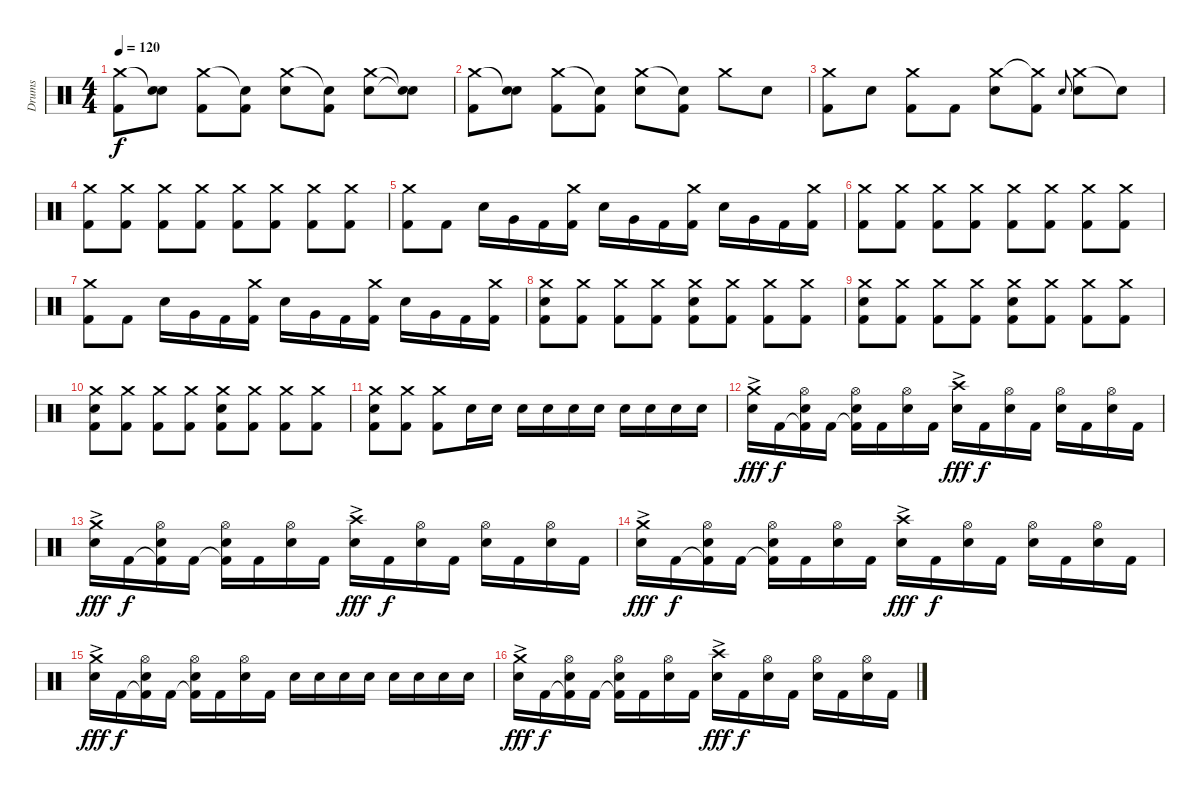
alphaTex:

\track ("Drums" "Drums") {instrument percussion}
\staff {score}
\articulation defaults
\ts (4 4)
\tempo 120
\clef neutral
\ks c
("Crash medium (hit)" "Kick (hit) 2").8{dy f} ("Snare (hit)"{t} "Electric Snare (hit)").8 ("Crash medium (hit)" "Kick (hit) 2").8 ("Snare (hit)"{t} "Kick (hit) 2").8 ("Crash medium (hit)" "Electric Snare (hit)").8 ("Snare (hit)"{t} "Kick (hit) 2").8 ("Crash medium (hit)" "Electric Snare (hit)").8 ("Snare (hit)"{t} "Electric Snare (hit)"{t}).8 |
("Crash medium (hit)" "Kick (hit) 2").8 ("Snare (hit)"{t} "Electric Snare (hit)").8 ("Crash medium (hit)" "Kick (hit) 2").8 ("Snare (hit)"{t} "Kick (hit) 2").8 ("Crash medium (hit)" "Electric Snare (hit)").8 ("Snare (hit)"{t} "Kick (hit) 2").8 "Crash medium (hit)".8 "Electric Snare (hit)".8 |
("Crash medium (hit)" "Kick (hit) 2").8 "Electric Snare (hit)".8 ("Crash medium (hit)" "Kick (hit) 2").8 "Kick (hit) 2".8 ("Crash medium (hit)" "Electric Snare (hit)").8 ("Crash medium (hit)"{t} "Kick (hit) 2").8 "Electric Snare (hit)".8{gr onbeat} ("Crash medium (hit)" "Electric Snare (hit)").8 "Snare (hit)"{t}.8 |
("Crash medium (hit)" "Kick (hit) 2").8 ("Crash medium (hit)" "Kick (hit) 2").8 ("Crash medium (hit)" "Kick (hit) 2").8 ("Crash medium (hit)" "Kick (hit) 2").8 ("Crash medium (hit)" "Kick (hit) 2").8 ("Crash medium (hit)" "Kick (hit) 2").8 ("Crash medium (hit)" "Kick (hit) 2").8 ("Crash medium (hit)" "Kick (hit) 2").8 |
("Crash medium (hit)" "Kick (hit) 2").8 "Kick (hit) 2".8 "Electric Snare (hit)".16 "Very Low Tom (hit)".16 "Kick (hit) 2".16 ("Crash medium (hit)" "Kick (hit) 2").16 "Electric Snare (hit)".16 "Very Low Tom (hit)".16 "Kick (hit) 2".16 ("Crash medium (hit)" "Kick (hit) 2").16 "Electric Snare (hit)".16 "Very Low Tom (hit)".16 "Kick (hit) 2".16 ("Crash medium (hit)" "Kick (hit) 2").16 |
("Crash medium (hit)" "Kick (hit) 2").8 ("Crash medium (hit)" "Kick (hit) 2").8 ("Crash medium (hit)" "Kick (hit) 2").8 ("Crash medium (hit)" "Kick (hit) 2").8 ("Crash medium (hit)" "Kick (hit) 2").8 ("Crash medium (hit)" "Kick (hit) 2").8 ("Crash medium (hit)" "Kick (hit) 2").8 ("Crash medium (hit)" "Kick (hit) 2").8 |
("Crash medium (hit)" "Kick (hit) 2").8 "Kick (hit) 2".8 "Electric Snare (hit)".16 "Very Low Tom (hit)".16 "Kick (hit) 2".16 ("Crash medium (hit)" "Kick (hit) 2").16 "Electric Snare (hit)".16 "Very Low Tom (hit)".16 "Kick (hit) 2".16 ("Crash medium (hit)" "Kick (hit) 2").16 "Electric Snare (hit)".16 "Very Low Tom (hit)".16 "Kick (hit) 2".16 ("Crash medium (hit)" "Kick (hit) 2").16 |
("Crash medium (hit)" "Electric Snare (hit)" "Kick (hit) 2").8 ("Crash medium (hit)" "Kick (hit) 2").8 ("Crash medium (hit)" "Kick (hit) 2").8 ("Crash medium (hit)" "Kick (hit) 2").8 ("Crash medium (hit)" "Electric Snare (hit)" "Kick (hit) 2").8 ("Crash medium (hit)" "Kick (hit) 2").8 ("Crash medium (hit)" "Kick (hit) 2").8 ("Crash medium (hit)" "Kick (hit) 2").8 |
("Crash medium (hit)" "Electric Snare (hit)" "Kick (hit) 2").8 ("Crash medium (hit)" "Kick (hit) 2").8 ("Crash medium (hit)" "Kick (hit) 2").8 ("Crash medium (hit)" "Kick (hit) 2").8 ("Crash medium (hit)" "Electric Snare (hit)" "Kick (hit) 2").8 ("Crash medium (hit)" "Kick (hit) 2").8 ("Crash medium (hit)" "Kick (hit) 2").8 ("Crash medium (hit)" "Kick (hit) 2").8 |
("Crash medium (hit)" "Electric Snare (hit)" "Kick (hit) 2").8 ("Crash medium (hit)" "Kick (hit) 2").8 ("Crash medium (hit)" "Kick (hit) 2").8 ("Crash medium (hit)" "Kick (hit) 2").8 ("Crash medium (hit)" "Electric Snare (hit)" "Kick (hit) 2").8 ("Crash medium (hit)" "Kick (hit) 2").8 ("Crash medium (hit)" "Kick (hit) 2").8 ("Crash medium (hit)" "Kick (hit) 2").8 |
("Crash medium (hit)" "Electric Snare (hit)" "Kick (hit) 2").8 ("Crash medium (hit)" "Kick (hit) 2").8 ("Crash medium (hit)" "Kick (hit) 2").8 "Electric Snare (hit)".16 "Electric Snare (hit)".16 "Electric Snare (hit)".16 "Electric Snare (hit)".16 "Electric Snare (hit)".16 "Electric Snare (hit)".16 "Electric Snare (hit)".16 "Electric Snare (hit)".16 "Electric Snare (hit)".16 "Electric Snare (hit)".16 |
("Electric Snare (hit)"{ac} "Crash medium (hit)").16{dy fff} "Kick (hit) 2".16{dy f} ("Kick (hit) 2"{t} "Hi-Hat (open)" "Electric Snare (hit)").16 "Kick (hit) 2".16 ("Kick (hit) 2"{t} "Hi-Hat (open)" "Electric Snare (hit)").16 "Kick (hit) 2".16 ("Hi-Hat (open)" "Electric Snare (hit)").16 "Kick (hit) 2".16 ("Electric Snare (hit)"{ac} "Crash high (hit)").16{dy fff} "Kick (hit) 2".16{dy f} ("Hi-Hat (open)" "Electric Snare (hit)").16 "Kick (hit) 2".16 ("Hi-Hat (open)" "Electric Snare (hit)").16 "Kick (hit) 2".16 ("Hi-Hat (open)" "Electric Snare (hit)").16 "Kick (hit) 2".16 |
("Electric Snare (hit)"{ac} "Crash medium (hit)").16{dy fff} "Kick (hit) 2".16{dy f} ("Kick (hit) 2"{t} "Hi-Hat (open)" "Electric Snare (hit)").16 "Kick (hit) 2".16 ("Kick (hit) 2"{t} "Hi-Hat (open)" "Electric Snare (hit)").16 "Kick (hit) 2".16 ("Hi-Hat (open)" "Electric Snare (hit)").16 "Kick (hit) 2".16 ("Electric Snare (hit)"{ac} "Crash high (hit)").16{dy fff} "Kick (hit) 2".16{dy f} ("Hi-Hat (open)" "Electric Snare (hit)").16 "Kick (hit) 2".16 ("Hi-Hat (open)" "Electric Snare (hit)").16 "Kick (hit) 2".16 ("Hi-Hat (open)" "Electric Snare (hit)").16 "Kick (hit) 2".16 |
("Electric Snare (hit)"{ac} "Crash medium (hit)").16{dy fff} "Kick (hit) 2".16{dy f} ("Kick (hit) 2"{t} "Hi-Hat (open)" "Electric Snare (hit)").16 "Kick (hit) 2".16 ("Kick (hit) 2"{t} "Hi-Hat (open)" "Electric Snare (hit)").16 "Kick (hit) 2".16 ("Hi-Hat (open)" "Electric Snare (hit)").16 "Kick (hit) 2".16 ("Electric Snare (hit)"{ac} "Crash high (hit)").16{dy fff} "Kick (hit) 2".16{dy f} ("Hi-Hat (open)" "Electric Snare (hit)").16 "Kick (hit) 2".16 ("Hi-Hat (open)" "Electric Snare (hit)").16 "Kick (hit) 2".16 ("Hi-Hat (open)" "Electric Snare (hit)").16 "Kick (hit) 2".16 |
("Electric Snare (hit)"{ac} "Crash medium (hit)").16{dy fff} "Kick (hit) 2".16{dy f} ("Kick (hit) 2"{t} "Hi-Hat (open)" "Electric Snare (hit)").16 "Kick (hit) 2".16 ("Kick (hit) 2"{t} "Hi-Hat (open)" "Electric Snare (hit)").16 "Kick (hit) 2".16 ("Hi-Hat (open)" "Electric Snare (hit)").16 "Kick (hit) 2".16 "Electric Snare (hit)".16 "Electric Snare (hit)".16 "Electric Snare (hit)".16 "Electric Snare (hit)".16 "Electric Snare (hit)".16 "Electric Snare (hit)".16 "Electric Snare (hit)".16 "Electric Snare (hit)".16 |
("Electric Snare (hit)"{ac} "Crash medium (hit)").16{dy fff} "Kick (hit) 2".16{dy f} ("Kick (hit) 2"{t} "Hi-Hat (open)" "Electric Snare (hit)").16 "Kick (hit) 2".16 ("Kick (hit) 2"{t} "Hi-Hat (open)" "Electric Snare (hit)").16 "Kick (hit) 2".16 ("Hi-Hat (open)" "Electric Snare (hit)").16 "Kick (hit) 2".16 ("Electric Snare (hit)"{ac} "Crash high (hit)").16{dy fff} "Kick (hit) 2".16{dy f} ("Hi-Hat (open)" "Electric Snare (hit)").16 "Kick (hit) 2".16 ("Hi-Hat (open)" "Electric Snare (hit)").16 "Kick (hit) 2".16 ("Hi-Hat (open)" "Electric Snare (hit)").16 "Kick (hit) 2".16
